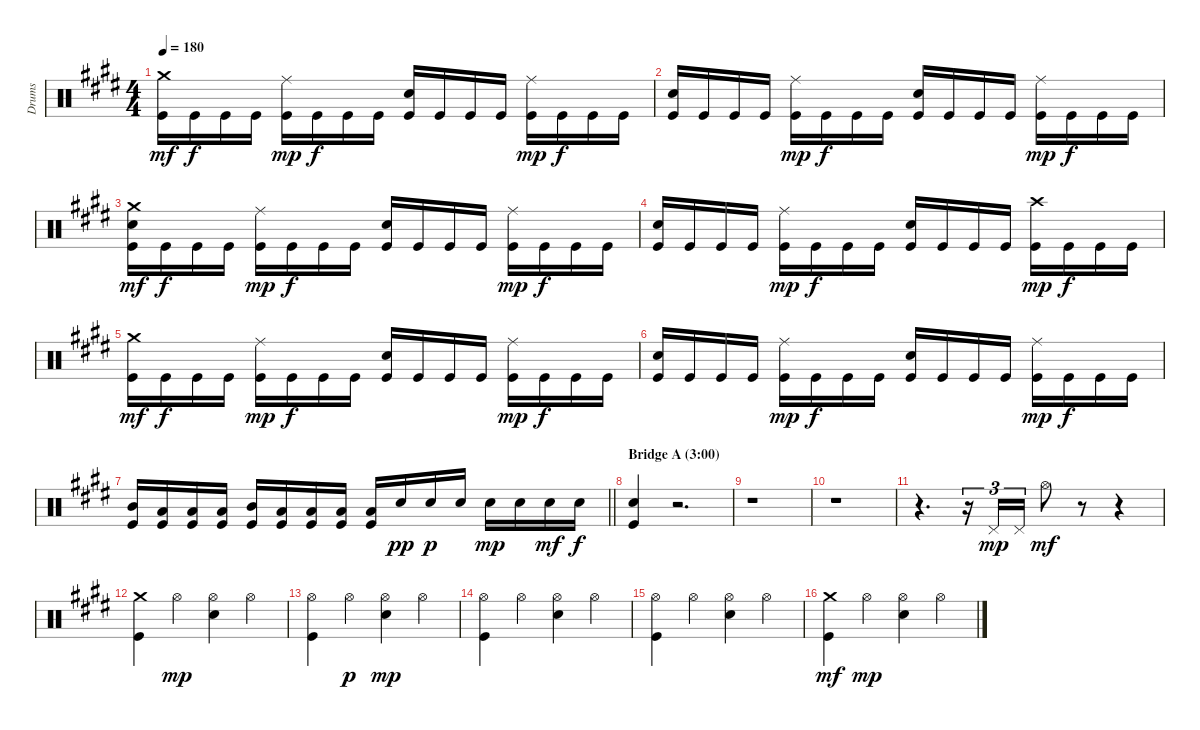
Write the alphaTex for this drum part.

\track ("Drums" "Drums") {instrument percussion}
\staff {score}
\articulation defaults
\ts (4 4)
\tempo 180
\clef neutral
\ks c#minor
("Crash medium (hit)" "Kick (hit)").16{dy mf} "Kick (hit)".16{dy f} "Kick (hit)".16 "Kick (hit)".16 ("Ride (middle)" "Kick (hit)").16{dy mp} "Kick (hit)".16{dy f} "Kick (hit)".16 "Kick (hit)".16 ("Snare (hit) 2" "Kick (hit)").16 "Kick (hit)".16 "Kick (hit)".16 "Kick (hit)".16 ("Ride (middle)" "Kick (hit)").16{dy mp} "Kick (hit)".16{dy f} "Kick (hit)".16 "Kick (hit)".16 |
("Snare (hit) 2" "Kick (hit)").16 "Kick (hit)".16 "Kick (hit)".16 "Kick (hit)".16 ("Ride (middle)" "Kick (hit)").16{dy mp} "Kick (hit)".16{dy f} "Kick (hit)".16 "Kick (hit)".16 ("Snare (hit) 2" "Kick (hit)").16 "Kick (hit)".16 "Kick (hit)".16 "Kick (hit)".16 ("Ride (middle)" "Kick (hit)").16{dy mp} "Kick (hit)".16{dy f} "Kick (hit)".16 "Kick (hit)".16 |
("Crash medium (hit)" "Snare (hit) 2" "Kick (hit)").16{dy mf} "Kick (hit)".16{dy f} "Kick (hit)".16 "Kick (hit)".16 ("Ride (middle)" "Kick (hit)").16{dy mp} "Kick (hit)".16{dy f} "Kick (hit)".16 "Kick (hit)".16 ("Snare (hit) 2" "Kick (hit)").16 "Kick (hit)".16 "Kick (hit)".16 "Kick (hit)".16 ("Ride (middle)" "Kick (hit)").16{dy mp} "Kick (hit)".16{dy f} "Kick (hit)".16 "Kick (hit)".16 |
("Snare (hit) 2" "Kick (hit)").16 "Kick (hit)".16 "Kick (hit)".16 "Kick (hit)".16 ("Ride (middle)" "Kick (hit)").16{dy mp} "Kick (hit)".16{dy f} "Kick (hit)".16 "Kick (hit)".16 ("Snare (hit) 2" "Kick (hit)").16 "Kick (hit)".16 "Kick (hit)".16 "Kick (hit)".16 ("Crash high (hit)" "Kick (hit)").16{dy mp} "Kick (hit)".16{dy f} "Kick (hit)".16 "Kick (hit)".16 |
("Crash medium (hit)" "Kick (hit)").16{dy mf} "Kick (hit)".16{dy f} "Kick (hit)".16 "Kick (hit)".16 ("Ride (middle)" "Kick (hit)").16{dy mp} "Kick (hit)".16{dy f} "Kick (hit)".16 "Kick (hit)".16 ("Snare (hit) 2" "Kick (hit)").16 "Kick (hit)".16 "Kick (hit)".16 "Kick (hit)".16 ("Ride (middle)" "Kick (hit)").16{dy mp} "Kick (hit)".16{dy f} "Kick (hit)".16 "Kick (hit)".16 |
("Snare (hit) 2" "Kick (hit)").16 "Kick (hit)".16 "Kick (hit)".16 "Kick (hit)".16 ("Ride (middle)" "Kick (hit)").16{dy mp} "Kick (hit)".16{dy f} "Kick (hit)".16 "Kick (hit)".16 ("Snare (hit) 2" "Kick (hit)").16 "Kick (hit)".16 "Kick (hit)".16 "Kick (hit)".16 ("Ride (middle)" "Kick (hit)").16{dy mp} "Kick (hit)".16{dy f} "Kick (hit)".16 "Kick (hit)".16 |
\barLineRight lightlight
("Mid Tom (hit)" "Kick (hit)").16 ("Low Tom (hit)" "Kick (hit)").16 ("Low Floor Tom (hit)" "Kick (hit)").16 ("Low Floor Tom (hit)" "Kick (hit)").16 ("Mid Tom (hit)" "Kick (hit)").16 ("Low Tom (hit)" "Kick (hit)").16 ("Low Floor Tom (hit)" "Kick (hit)").16 ("Low Floor Tom (hit)" "Kick (hit)").16 ("Low Floor Tom (hit)" "Kick (hit)").16 "Snare (hit) 2".16{dy pp} "Snare (hit) 2".16{dy p} "Snare (hit) 2".16 "Snare (hit) 2".16{dy mp} "Snare (hit) 2".16 "Snare (hit) 2".16{dy mf} "Snare (hit) 2".16{dy f} |
\section ("" "Bridge A (3:00)")
("Snare (hit) 2" "Kick (hit)").4 r.2{d} |
r.1 |
r.1 |
r.4{d} r.16{tu (3 2)} "Pedal Hi-Hat (hit)".16{tu (3 2) dy mp} "Pedal Hi-Hat (hit)".16{tu (3 2)} "Hi-Hat (open)".8{dy mf} r.8 r.4 |
("Crash medium (hit)" "Kick (hit)").4 "Hi-Hat (open)".4{dy mp} ("Hi-Hat (open)" "Snare (hit) 2").4 "Hi-Hat (open)".4 |
("Hi-Hat (open)" "Kick (hit)").4 "Hi-Hat (open)".4{dy p} ("Hi-Hat (open)" "Snare (hit) 2").4{dy mp} "Hi-Hat (open)".4 |
("Hi-Hat (open)" "Kick (hit)").4 "Hi-Hat (open)".4 ("Hi-Hat (open)" "Snare (hit) 2").4 "Hi-Hat (open)".4 |
("Hi-Hat (open)" "Kick (hit)").4 "Hi-Hat (open)".4 ("Hi-Hat (open)" "Snare (hit) 2").4 "Hi-Hat (open)".4 |
("Crash medium (hit)" "Kick (hit)").4{dy mf} "Hi-Hat (open)".4{dy mp} ("Hi-Hat (open)" "Snare (hit) 2").4 "Hi-Hat (open)".4
